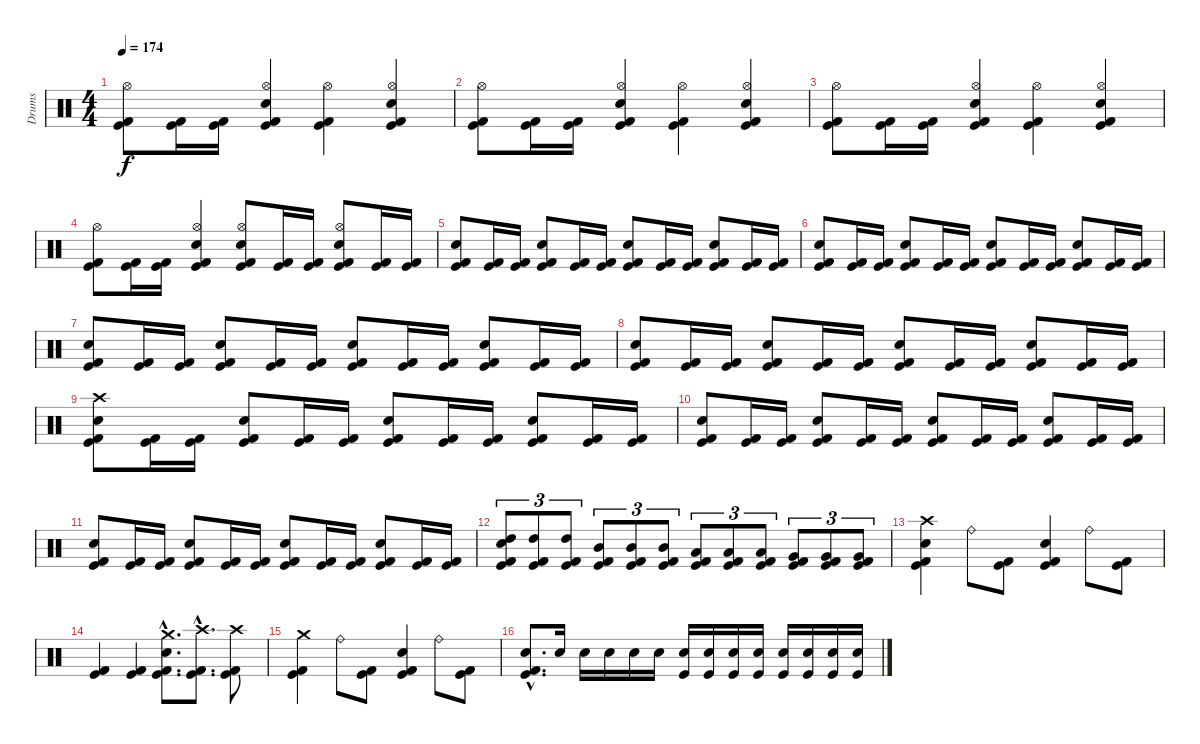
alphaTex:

\track ("Drums" "Drums") {instrument percussion}
\staff {score}
\articulation defaults
\ts (4 4)
\tempo 174
\clef neutral
\ks c
("Kick (hit)" "Kick (hit) 2" "Hi-Hat (open)").8{dy f} ("Kick (hit)" "Kick (hit) 2").16 ("Kick (hit)" "Kick (hit) 2").16 ("Kick (hit)" "Kick (hit) 2" "Electric Snare (hit)" "Hi-Hat (open)").4 ("Kick (hit)" "Kick (hit) 2" "Hi-Hat (open)").4 ("Kick (hit)" "Kick (hit) 2" "Electric Snare (hit)" "Hi-Hat (open)").4 |
("Kick (hit)" "Kick (hit) 2" "Hi-Hat (open)").8 ("Kick (hit)" "Kick (hit) 2").16 ("Kick (hit)" "Kick (hit) 2").16 ("Kick (hit)" "Kick (hit) 2" "Electric Snare (hit)" "Hi-Hat (open)").4 ("Kick (hit)" "Kick (hit) 2" "Hi-Hat (open)").4 ("Kick (hit)" "Kick (hit) 2" "Electric Snare (hit)" "Hi-Hat (open)").4 |
("Kick (hit)" "Kick (hit) 2" "Hi-Hat (open)").8 ("Kick (hit)" "Kick (hit) 2").16 ("Kick (hit)" "Kick (hit) 2").16 ("Kick (hit)" "Kick (hit) 2" "Electric Snare (hit)" "Hi-Hat (open)").4 ("Kick (hit)" "Kick (hit) 2" "Hi-Hat (open)").4 ("Kick (hit)" "Kick (hit) 2" "Electric Snare (hit)" "Hi-Hat (open)").4 |
("Kick (hit)" "Kick (hit) 2" "Hi-Hat (open)").8 ("Kick (hit)" "Kick (hit) 2").16 ("Kick (hit)" "Kick (hit) 2").16 ("Kick (hit)" "Kick (hit) 2" "Electric Snare (hit)" "Hi-Hat (open)").4 ("Kick (hit)" "Kick (hit) 2" "Electric Snare (hit)" "Hi-Hat (open)").8 ("Kick (hit)" "Kick (hit) 2").16 ("Kick (hit)" "Kick (hit) 2").16 ("Kick (hit)" "Kick (hit) 2" "Electric Snare (hit)" "Hi-Hat (open)").8 ("Kick (hit)" "Kick (hit) 2").16 ("Kick (hit)" "Kick (hit) 2").16 |
("Kick (hit)" "Kick (hit) 2" "Electric Snare (hit)").8 ("Kick (hit)" "Kick (hit) 2").16 ("Kick (hit)" "Kick (hit) 2").16 ("Kick (hit)" "Kick (hit) 2" "Electric Snare (hit)").8 ("Kick (hit)" "Kick (hit) 2").16 ("Kick (hit)" "Kick (hit) 2").16 ("Kick (hit)" "Kick (hit) 2" "Electric Snare (hit)").8 ("Kick (hit)" "Kick (hit) 2").16 ("Kick (hit)" "Kick (hit) 2").16 ("Kick (hit)" "Kick (hit) 2" "Electric Snare (hit)").8 ("Kick (hit)" "Kick (hit) 2").16 ("Kick (hit)" "Kick (hit) 2").16 |
("Kick (hit)" "Kick (hit) 2" "Electric Snare (hit)").8 ("Kick (hit)" "Kick (hit) 2").16 ("Kick (hit)" "Kick (hit) 2").16 ("Kick (hit)" "Kick (hit) 2" "Electric Snare (hit)").8 ("Kick (hit)" "Kick (hit) 2").16 ("Kick (hit)" "Kick (hit) 2").16 ("Kick (hit)" "Kick (hit) 2" "Electric Snare (hit)").8 ("Kick (hit)" "Kick (hit) 2").16 ("Kick (hit)" "Kick (hit) 2").16 ("Kick (hit)" "Kick (hit) 2" "Electric Snare (hit)").8 ("Kick (hit)" "Kick (hit) 2").16 ("Kick (hit)" "Kick (hit) 2").16 |
("Kick (hit)" "Kick (hit) 2" "Electric Snare (hit)").8 ("Kick (hit)" "Kick (hit) 2").16 ("Kick (hit)" "Kick (hit) 2").16 ("Kick (hit)" "Kick (hit) 2" "Electric Snare (hit)").8 ("Kick (hit)" "Kick (hit) 2").16 ("Kick (hit)" "Kick (hit) 2").16 ("Kick (hit)" "Kick (hit) 2" "Electric Snare (hit)").8 ("Kick (hit)" "Kick (hit) 2").16 ("Kick (hit)" "Kick (hit) 2").16 ("Kick (hit)" "Kick (hit) 2" "Electric Snare (hit)").8 ("Kick (hit)" "Kick (hit) 2").16 ("Kick (hit)" "Kick (hit) 2").16 |
("Kick (hit)" "Kick (hit) 2" "Electric Snare (hit)").8 ("Kick (hit)" "Kick (hit) 2").16 ("Kick (hit)" "Kick (hit) 2").16 ("Kick (hit)" "Kick (hit) 2" "Electric Snare (hit)").8 ("Kick (hit)" "Kick (hit) 2").16 ("Kick (hit)" "Kick (hit) 2").16 ("Kick (hit)" "Kick (hit) 2" "Electric Snare (hit)").8 ("Kick (hit)" "Kick (hit) 2").16 ("Kick (hit)" "Kick (hit) 2").16 ("Kick (hit)" "Kick (hit) 2" "Electric Snare (hit)").8 ("Kick (hit)" "Kick (hit) 2").16 ("Kick (hit)" "Kick (hit) 2").16 |
("Kick (hit)" "Kick (hit) 2" "Electric Snare (hit)" "Crash high (hit)").8 ("Kick (hit)" "Kick (hit) 2").16 ("Kick (hit)" "Kick (hit) 2").16 ("Kick (hit)" "Kick (hit) 2" "Electric Snare (hit)").8 ("Kick (hit)" "Kick (hit) 2").16 ("Kick (hit)" "Kick (hit) 2").16 ("Kick (hit)" "Kick (hit) 2" "Electric Snare (hit)").8 ("Kick (hit)" "Kick (hit) 2").16 ("Kick (hit)" "Kick (hit) 2").16 ("Kick (hit)" "Kick (hit) 2" "Electric Snare (hit)").8 ("Kick (hit)" "Kick (hit) 2").16 ("Kick (hit)" "Kick (hit) 2").16 |
("Kick (hit)" "Kick (hit) 2" "Electric Snare (hit)").8 ("Kick (hit)" "Kick (hit) 2").16 ("Kick (hit)" "Kick (hit) 2").16 ("Kick (hit)" "Kick (hit) 2" "Electric Snare (hit)").8 ("Kick (hit)" "Kick (hit) 2").16 ("Kick (hit)" "Kick (hit) 2").16 ("Kick (hit)" "Kick (hit) 2" "Electric Snare (hit)").8 ("Kick (hit)" "Kick (hit) 2").16 ("Kick (hit)" "Kick (hit) 2").16 ("Kick (hit)" "Kick (hit) 2" "Electric Snare (hit)").8 ("Kick (hit)" "Kick (hit) 2").16 ("Kick (hit)" "Kick (hit) 2").16 |
("Kick (hit)" "Kick (hit) 2" "Electric Snare (hit)").8 ("Kick (hit)" "Kick (hit) 2").16 ("Kick (hit)" "Kick (hit) 2").16 ("Kick (hit)" "Kick (hit) 2" "Electric Snare (hit)").8 ("Kick (hit)" "Kick (hit) 2").16 ("Kick (hit)" "Kick (hit) 2").16 ("Kick (hit)" "Kick (hit) 2" "Electric Snare (hit)").8 ("Kick (hit)" "Kick (hit) 2").16 ("Kick (hit)" "Kick (hit) 2").16 ("Kick (hit)" "Kick (hit) 2" "Electric Snare (hit)").8 ("Kick (hit)" "Kick (hit) 2").16 ("Kick (hit)" "Kick (hit) 2").16 |
("Kick (hit)" "Kick (hit) 2" "Electric Snare (hit)" "High Tom (hit)").8{tu (3 2)} ("Kick (hit)" "Kick (hit) 2" "High Tom (hit)").8{tu (3 2)} ("Kick (hit)" "Kick (hit) 2" "High Tom (hit)").8{tu (3 2)} ("Kick (hit)" "Kick (hit) 2" "Mid Tom (hit)").8{tu (3 2)} ("Kick (hit)" "Kick (hit) 2" "Mid Tom (hit)").8{tu (3 2)} ("Kick (hit)" "Kick (hit) 2" "Mid Tom (hit)").8{tu (3 2)} ("Kick (hit)" "Kick (hit) 2" "Low Tom (hit)").8{tu (3 2)} ("Kick (hit)" "Kick (hit) 2" "Low Tom (hit)").8{tu (3 2)} ("Kick (hit)" "Kick (hit) 2" "Low Tom (hit)").8{tu (3 2)} ("Kick (hit)" "Kick (hit) 2" "Very Low Tom (hit)").8{tu (3 2)} ("Kick (hit)" "Kick (hit) 2" "Very Low Tom (hit)").8{tu (3 2)} ("Kick (hit)" "Kick (hit) 2" "Very Low Tom (hit)").8{tu (3 2)} |
("Kick (hit)" "Kick (hit) 2" "Electric Snare (hit)" "Crash high (hit)").4 "Ride (bell)".8 ("Kick (hit)" "Kick (hit) 2").8 ("Kick (hit)" "Kick (hit) 2" "Electric Snare (hit)").4 "Ride (bell)".8 ("Kick (hit)" "Kick (hit) 2").8 |
("Kick (hit)" "Kick (hit) 2").4 ("Kick (hit)" "Kick (hit) 2").4 ("Kick (hit)"{hac} "Kick (hit) 2"{hac} "Electric Snare (hit)"{hac} "Crash medium (hit)"{hac}).8{d} ("Kick (hit)"{hac} "Kick (hit) 2"{hac} "Crash high (hit)"{hac}).8{d} ("Kick (hit)" "Kick (hit) 2" "Crash high (hit)").8 |
("Kick (hit)" "Kick (hit) 2" "Crash medium (hit)").4 "Ride (bell)".8 ("Kick (hit)" "Kick (hit) 2").8 ("Kick (hit)" "Kick (hit) 2" "Electric Snare (hit)").4 "Ride (bell)".8 ("Kick (hit)" "Kick (hit) 2").8 |
("Kick (hit)"{hac} "Kick (hit) 2"{hac} "Electric Snare (hit)"{hac}).8{d} "Electric Snare (hit)".16 "Electric Snare (hit)".16 "Electric Snare (hit)".16 "Electric Snare (hit)".16 "Electric Snare (hit)".16 ("Kick (hit)" "Electric Snare (hit)").16 ("Kick (hit)" "Electric Snare (hit)").16 ("Kick (hit)" "Electric Snare (hit)").16 ("Kick (hit)" "Electric Snare (hit)").16 ("Kick (hit)" "Electric Snare (hit)").16 ("Kick (hit)" "Electric Snare (hit)").16 ("Kick (hit)" "Electric Snare (hit)").16 ("Kick (hit)" "Electric Snare (hit)").16
